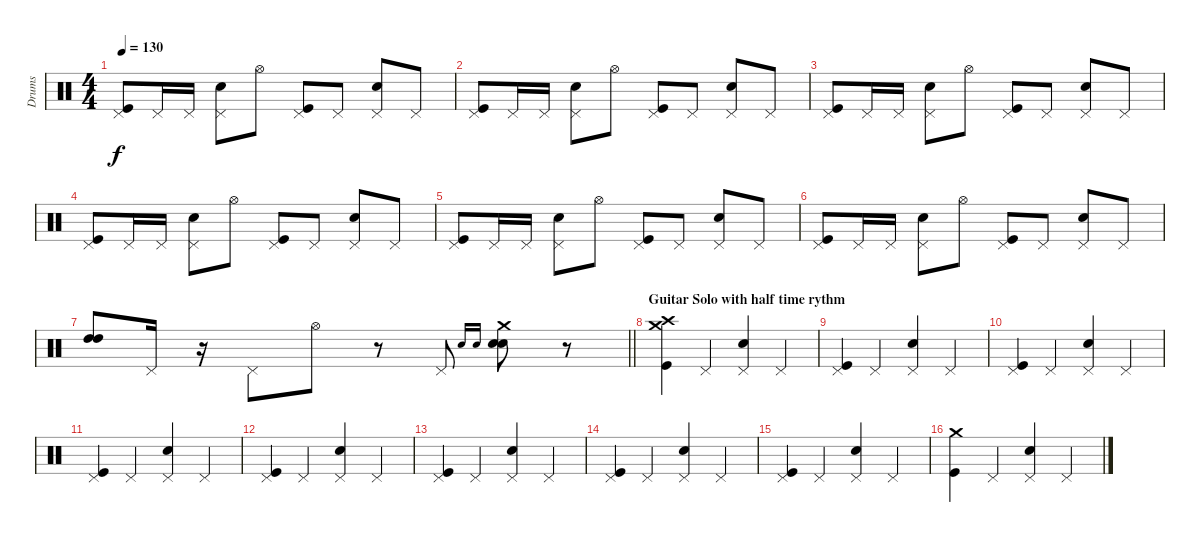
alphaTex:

\track ("Drums" "Drums") {instrument percussion}
\staff {score}
\articulation defaults
\ts (4 4)
\tempo 130
\clef neutral
\ks c
("Pedal Hi-Hat (hit)" "Kick (hit)").8{dy f} "Pedal Hi-Hat (hit)".16 "Pedal Hi-Hat (hit)".16 ("Pedal Hi-Hat (hit)" "Snare (hit) 2").8 "Hi-Hat (open)".8 ("Pedal Hi-Hat (hit)" "Kick (hit)").8 "Pedal Hi-Hat (hit)".8 ("Pedal Hi-Hat (hit)" "Snare (hit) 2").8 "Pedal Hi-Hat (hit)".8 |
("Pedal Hi-Hat (hit)" "Kick (hit)").8 "Pedal Hi-Hat (hit)".16 "Pedal Hi-Hat (hit)".16 ("Pedal Hi-Hat (hit)" "Snare (hit) 2").8 "Hi-Hat (open)".8 ("Pedal Hi-Hat (hit)" "Kick (hit)").8 "Pedal Hi-Hat (hit)".8 ("Pedal Hi-Hat (hit)" "Snare (hit) 2").8 "Pedal Hi-Hat (hit)".8 |
("Pedal Hi-Hat (hit)" "Kick (hit)").8 "Pedal Hi-Hat (hit)".16 "Pedal Hi-Hat (hit)".16 ("Pedal Hi-Hat (hit)" "Snare (hit) 2").8 "Hi-Hat (open)".8 ("Pedal Hi-Hat (hit)" "Kick (hit)").8 "Pedal Hi-Hat (hit)".8 ("Pedal Hi-Hat (hit)" "Snare (hit) 2").8 "Pedal Hi-Hat (hit)".8 |
("Pedal Hi-Hat (hit)" "Kick (hit)").8 "Pedal Hi-Hat (hit)".16 "Pedal Hi-Hat (hit)".16 ("Pedal Hi-Hat (hit)" "Snare (hit) 2").8 "Hi-Hat (open)".8 ("Pedal Hi-Hat (hit)" "Kick (hit)").8 "Pedal Hi-Hat (hit)".8 ("Pedal Hi-Hat (hit)" "Snare (hit) 2").8 "Pedal Hi-Hat (hit)".8 |
("Pedal Hi-Hat (hit)" "Kick (hit)").8 "Pedal Hi-Hat (hit)".16 "Pedal Hi-Hat (hit)".16 ("Pedal Hi-Hat (hit)" "Snare (hit) 2").8 "Hi-Hat (open)".8 ("Pedal Hi-Hat (hit)" "Kick (hit)").8 "Pedal Hi-Hat (hit)".8 ("Pedal Hi-Hat (hit)" "Snare (hit) 2").8 "Pedal Hi-Hat (hit)".8 |
("Pedal Hi-Hat (hit)" "Kick (hit)").8 "Pedal Hi-Hat (hit)".16 "Pedal Hi-Hat (hit)".16 ("Pedal Hi-Hat (hit)" "Snare (hit) 2").8 "Hi-Hat (open)".8 ("Pedal Hi-Hat (hit)" "Kick (hit)").8 "Pedal Hi-Hat (hit)".8 ("Pedal Hi-Hat (hit)" "Snare (hit) 2").8 "Pedal Hi-Hat (hit)".8 |
\barLineRight lightlight
("High Tom (hit)" "High Tom (hit)").8 "Pedal Hi-Hat (hit)".16 r.16 "Pedal Hi-Hat (hit)".8 "Hi-Hat (open)".8 r.8 "Pedal Hi-Hat (hit)".8 "Snare (hit) 2".16{gr onbeat} "Snare (hit) 2".16{gr onbeat} ("Crash medium (hit)" "Snare (hit) 2" "Snare (hit) 2").8 r.8 |
\section ("" "Guitar Solo with half time rythm")
("Kick (hit)" "Crash high (hit)" "Crash medium (hit)").4 "Pedal Hi-Hat (hit)".4 ("Pedal Hi-Hat (hit)" "Snare (hit) 2").4 "Pedal Hi-Hat (hit)".4 |
("Pedal Hi-Hat (hit)" "Kick (hit)").4 "Pedal Hi-Hat (hit)".4 ("Pedal Hi-Hat (hit)" "Snare (hit) 2").4 "Pedal Hi-Hat (hit)".4 |
("Pedal Hi-Hat (hit)" "Kick (hit)").4 "Pedal Hi-Hat (hit)".4 ("Pedal Hi-Hat (hit)" "Snare (hit) 2").4 "Pedal Hi-Hat (hit)".4 |
("Pedal Hi-Hat (hit)" "Kick (hit)").4 "Pedal Hi-Hat (hit)".4 ("Pedal Hi-Hat (hit)" "Snare (hit) 2").4 "Pedal Hi-Hat (hit)".4 |
("Pedal Hi-Hat (hit)" "Kick (hit)").4 "Pedal Hi-Hat (hit)".4 ("Pedal Hi-Hat (hit)" "Snare (hit) 2").4 "Pedal Hi-Hat (hit)".4 |
("Pedal Hi-Hat (hit)" "Kick (hit)").4 "Pedal Hi-Hat (hit)".4 ("Pedal Hi-Hat (hit)" "Snare (hit) 2").4 "Pedal Hi-Hat (hit)".4 |
("Pedal Hi-Hat (hit)" "Kick (hit)").4 "Pedal Hi-Hat (hit)".4 ("Pedal Hi-Hat (hit)" "Snare (hit) 2").4 "Pedal Hi-Hat (hit)".4 |
("Pedal Hi-Hat (hit)" "Kick (hit)").4 "Pedal Hi-Hat (hit)".4 ("Pedal Hi-Hat (hit)" "Snare (hit) 2").4 "Pedal Hi-Hat (hit)".4 |
("Kick (hit)" "Crash medium (hit)").4 "Pedal Hi-Hat (hit)".4 ("Pedal Hi-Hat (hit)" "Snare (hit) 2").4 "Pedal Hi-Hat (hit)".4
